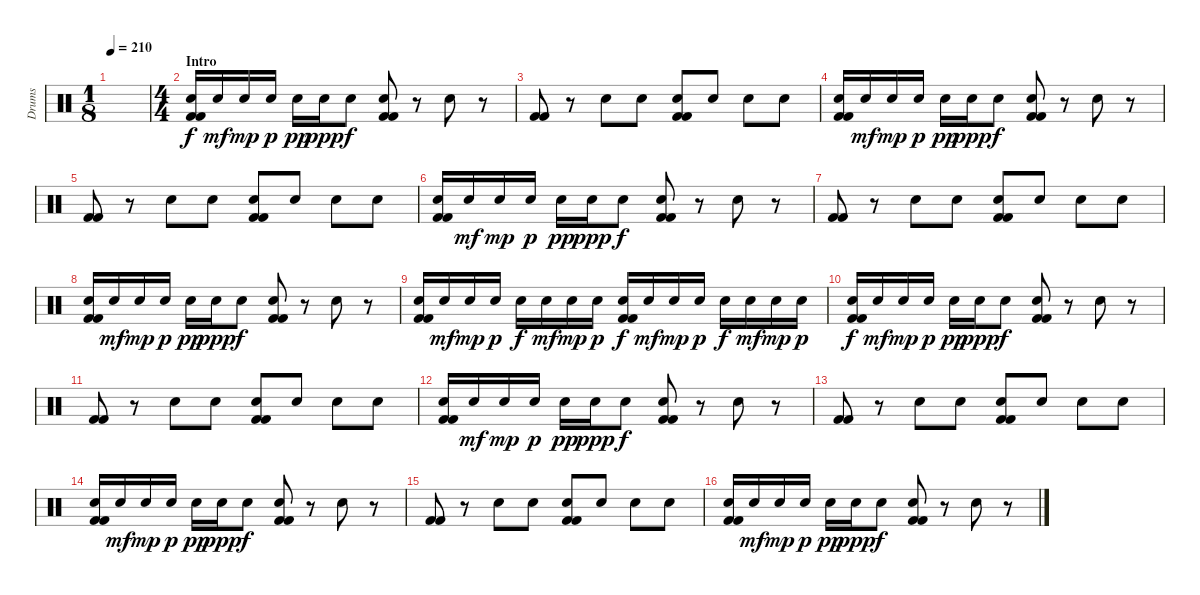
\track ("Drums" "Drums") {instrument percussion}
\staff {score}
\articulation defaults
\ts (1 8)
\tempo 210
\clef neutral
\ks c
|
\ts (4 4)
\section ("" "Intro")
("Snare (hit) 2" "Kick (hit) 2" "Kick (hit) 2").16 "Snare (hit) 2".16{dy mf} "Snare (hit) 2".16{dy mp} "Snare (hit) 2".16{dy p} "Snare (hit) 2".16{dy pp} "Snare (hit) 2".16{dy ppp} "Snare (hit) 2".8{dy f} ("Snare (hit) 2" "Kick (hit) 2" "Kick (hit) 2").8 r.8 "Snare (hit) 2".8 r.8 |
("Kick (hit) 2" "Kick (hit) 2").8 r.8 "Snare (hit) 2".8 "Snare (hit) 2".8 ("Snare (hit) 2" "Kick (hit) 2" "Kick (hit) 2").8 "Snare (hit) 2".8 "Snare (hit) 2".8 "Snare (hit) 2".8 |
("Snare (hit) 2" "Kick (hit) 2" "Kick (hit) 2").16 "Snare (hit) 2".16{dy mf} "Snare (hit) 2".16{dy mp} "Snare (hit) 2".16{dy p} "Snare (hit) 2".16{dy pp} "Snare (hit) 2".16{dy ppp} "Snare (hit) 2".8{dy f} ("Snare (hit) 2" "Kick (hit) 2" "Kick (hit) 2").8 r.8 "Snare (hit) 2".8 r.8 |
("Kick (hit) 2" "Kick (hit) 2").8 r.8 "Snare (hit) 2".8 "Snare (hit) 2".8 ("Snare (hit) 2" "Kick (hit) 2" "Kick (hit) 2").8 "Snare (hit) 2".8 "Snare (hit) 2".8 "Snare (hit) 2".8 |
("Snare (hit) 2" "Kick (hit) 2" "Kick (hit) 2").16 "Snare (hit) 2".16{dy mf} "Snare (hit) 2".16{dy mp} "Snare (hit) 2".16{dy p} "Snare (hit) 2".16{dy pp} "Snare (hit) 2".16{dy ppp} "Snare (hit) 2".8{dy f} ("Snare (hit) 2" "Kick (hit) 2" "Kick (hit) 2").8 r.8 "Snare (hit) 2".8 r.8 |
("Kick (hit) 2" "Kick (hit) 2").8 r.8 "Snare (hit) 2".8 "Snare (hit) 2".8 ("Snare (hit) 2" "Kick (hit) 2" "Kick (hit) 2").8 "Snare (hit) 2".8 "Snare (hit) 2".8 "Snare (hit) 2".8 |
("Snare (hit) 2" "Kick (hit) 2" "Kick (hit) 2").16 "Snare (hit) 2".16{dy mf} "Snare (hit) 2".16{dy mp} "Snare (hit) 2".16{dy p} "Snare (hit) 2".16{dy pp} "Snare (hit) 2".16{dy ppp} "Snare (hit) 2".8{dy f} ("Snare (hit) 2" "Kick (hit) 2" "Kick (hit) 2").8 r.8 "Snare (hit) 2".8 r.8 |
("Snare (hit) 2" "Kick (hit) 2" "Kick (hit) 2").16 "Snare (hit) 2".16{dy mf} "Snare (hit) 2".16{dy mp} "Snare (hit) 2".16{dy p} "Snare (hit) 2".16{dy f} "Snare (hit) 2".16{dy mf} "Snare (hit) 2".16{dy mp} "Snare (hit) 2".16{dy p} ("Snare (hit) 2" "Kick (hit) 2" "Kick (hit) 2").16{dy f} "Snare (hit) 2".16{dy mf} "Snare (hit) 2".16{dy mp} "Snare (hit) 2".16{dy p} "Snare (hit) 2".16{dy f} "Snare (hit) 2".16{dy mf} "Snare (hit) 2".16{dy mp} "Snare (hit) 2".16{dy p} |
("Snare (hit) 2" "Kick (hit) 2" "Kick (hit) 2").16{dy f} "Snare (hit) 2".16{dy mf} "Snare (hit) 2".16{dy mp} "Snare (hit) 2".16{dy p} "Snare (hit) 2".16{dy pp} "Snare (hit) 2".16{dy ppp} "Snare (hit) 2".8{dy f} ("Snare (hit) 2" "Kick (hit) 2" "Kick (hit) 2").8 r.8 "Snare (hit) 2".8 r.8 |
("Kick (hit) 2" "Kick (hit) 2").8 r.8 "Snare (hit) 2".8 "Snare (hit) 2".8 ("Snare (hit) 2" "Kick (hit) 2" "Kick (hit) 2").8 "Snare (hit) 2".8 "Snare (hit) 2".8 "Snare (hit) 2".8 |
("Snare (hit) 2" "Kick (hit) 2" "Kick (hit) 2").16 "Snare (hit) 2".16{dy mf} "Snare (hit) 2".16{dy mp} "Snare (hit) 2".16{dy p} "Snare (hit) 2".16{dy pp} "Snare (hit) 2".16{dy ppp} "Snare (hit) 2".8{dy f} ("Snare (hit) 2" "Kick (hit) 2" "Kick (hit) 2").8 r.8 "Snare (hit) 2".8 r.8 |
("Kick (hit) 2" "Kick (hit) 2").8 r.8 "Snare (hit) 2".8 "Snare (hit) 2".8 ("Snare (hit) 2" "Kick (hit) 2" "Kick (hit) 2").8 "Snare (hit) 2".8 "Snare (hit) 2".8 "Snare (hit) 2".8 |
("Snare (hit) 2" "Kick (hit) 2" "Kick (hit) 2").16 "Snare (hit) 2".16{dy mf} "Snare (hit) 2".16{dy mp} "Snare (hit) 2".16{dy p} "Snare (hit) 2".16{dy pp} "Snare (hit) 2".16{dy ppp} "Snare (hit) 2".8{dy f} ("Snare (hit) 2" "Kick (hit) 2" "Kick (hit) 2").8 r.8 "Snare (hit) 2".8 r.8 |
("Kick (hit) 2" "Kick (hit) 2").8 r.8 "Snare (hit) 2".8 "Snare (hit) 2".8 ("Snare (hit) 2" "Kick (hit) 2" "Kick (hit) 2").8 "Snare (hit) 2".8 "Snare (hit) 2".8 "Snare (hit) 2".8 |
("Snare (hit) 2" "Kick (hit) 2" "Kick (hit) 2").16 "Snare (hit) 2".16{dy mf} "Snare (hit) 2".16{dy mp} "Snare (hit) 2".16{dy p} "Snare (hit) 2".16{dy pp} "Snare (hit) 2".16{dy ppp} "Snare (hit) 2".8{dy f} ("Snare (hit) 2" "Kick (hit) 2" "Kick (hit) 2").8 r.8 "Snare (hit) 2".8 r.8
